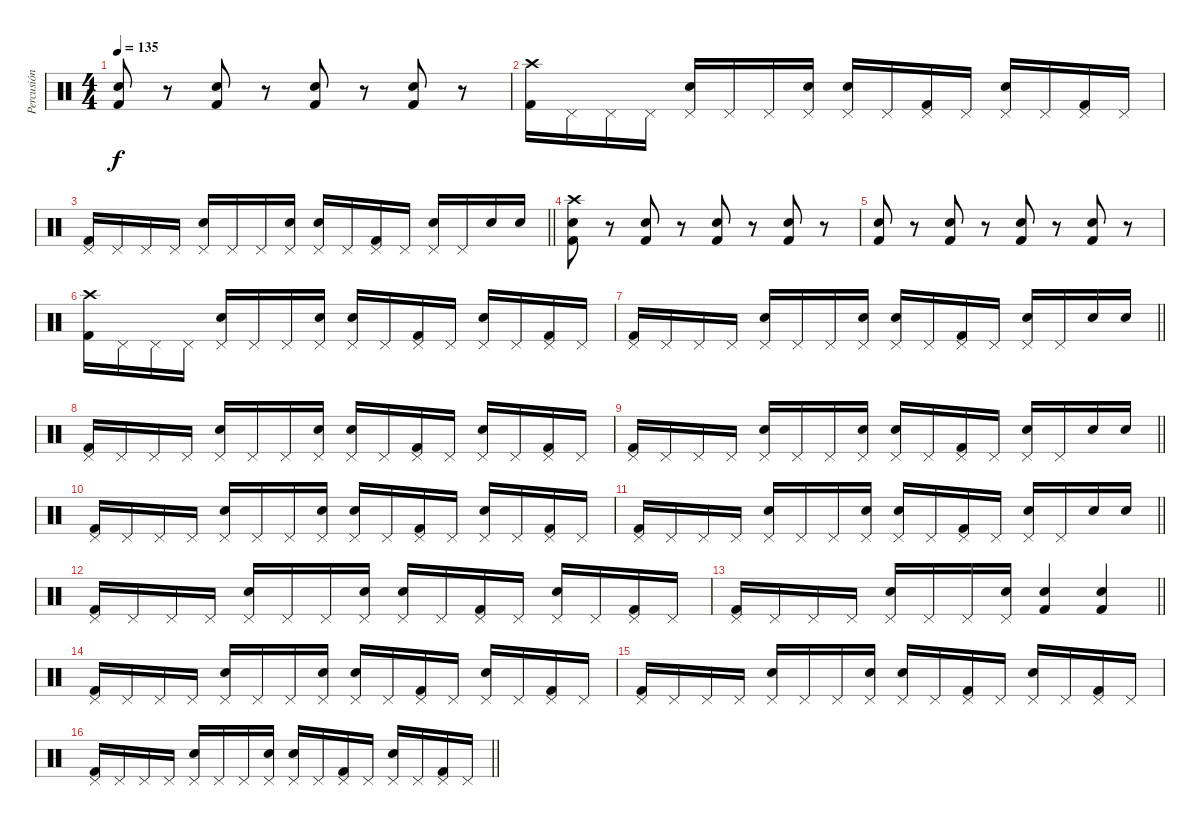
\track ("Percusión" "Percusión") {instrument percussion}
\staff {score}
\articulation defaults
\ts (4 4)
\tempo 135
\clef neutral
\ks c
("Snare (hit) 2" "Kick (hit) 2").8{dy f} r.8 ("Snare (hit) 2" "Kick (hit) 2").8 r.8 ("Snare (hit) 2" "Kick (hit) 2").8 r.8 ("Snare (hit) 2" "Kick (hit) 2").8 r.8 |
("Crash high (hit)" "Kick (hit) 2").16 "Pedal Hi-Hat (hit)".16 "Pedal Hi-Hat (hit)".16 "Pedal Hi-Hat (hit)".16 ("Pedal Hi-Hat (hit)" "Snare (hit) 2").16 "Pedal Hi-Hat (hit)".16 "Pedal Hi-Hat (hit)".16 ("Pedal Hi-Hat (hit)" "Snare (hit) 2").16 ("Pedal Hi-Hat (hit)" "Snare (hit) 2").16 "Pedal Hi-Hat (hit)".16 ("Pedal Hi-Hat (hit)" "Kick (hit) 2").16 "Pedal Hi-Hat (hit)".16 ("Pedal Hi-Hat (hit)" "Snare (hit) 2").16 "Pedal Hi-Hat (hit)".16 ("Pedal Hi-Hat (hit)" "Kick (hit) 2").16 "Pedal Hi-Hat (hit)".16 |
\barLineRight lightlight
("Pedal Hi-Hat (hit)" "Kick (hit) 2").16 "Pedal Hi-Hat (hit)".16 "Pedal Hi-Hat (hit)".16 "Pedal Hi-Hat (hit)".16 ("Pedal Hi-Hat (hit)" "Snare (hit) 2").16 "Pedal Hi-Hat (hit)".16 "Pedal Hi-Hat (hit)".16 ("Pedal Hi-Hat (hit)" "Snare (hit) 2").16 ("Pedal Hi-Hat (hit)" "Snare (hit) 2").16 "Pedal Hi-Hat (hit)".16 ("Pedal Hi-Hat (hit)" "Kick (hit) 2").16 "Pedal Hi-Hat (hit)".16 ("Pedal Hi-Hat (hit)" "Snare (hit) 2").16 "Pedal Hi-Hat (hit)".16 "Snare (hit) 2".16 "Snare (hit) 2".16 |
("Crash high (hit)" "Snare (hit) 2" "Kick (hit) 2").8 r.8 ("Snare (hit) 2" "Kick (hit) 2").8 r.8 ("Snare (hit) 2" "Kick (hit) 2").8 r.8 ("Snare (hit) 2" "Kick (hit) 2").8 r.8 |
("Snare (hit) 2" "Kick (hit) 2").8 r.8 ("Snare (hit) 2" "Kick (hit) 2").8 r.8 ("Snare (hit) 2" "Kick (hit) 2").8 r.8 ("Snare (hit) 2" "Kick (hit) 2").8 r.8 |
("Crash high (hit)" "Kick (hit) 2").16 "Pedal Hi-Hat (hit)".16 "Pedal Hi-Hat (hit)".16 "Pedal Hi-Hat (hit)".16 ("Pedal Hi-Hat (hit)" "Snare (hit) 2").16 "Pedal Hi-Hat (hit)".16 "Pedal Hi-Hat (hit)".16 ("Pedal Hi-Hat (hit)" "Snare (hit) 2").16 ("Pedal Hi-Hat (hit)" "Snare (hit) 2").16 "Pedal Hi-Hat (hit)".16 ("Pedal Hi-Hat (hit)" "Kick (hit) 2").16 "Pedal Hi-Hat (hit)".16 ("Pedal Hi-Hat (hit)" "Snare (hit) 2").16 "Pedal Hi-Hat (hit)".16 ("Pedal Hi-Hat (hit)" "Kick (hit) 2").16 "Pedal Hi-Hat (hit)".16 |
\barLineRight lightlight
("Pedal Hi-Hat (hit)" "Kick (hit) 2").16 "Pedal Hi-Hat (hit)".16 "Pedal Hi-Hat (hit)".16 "Pedal Hi-Hat (hit)".16 ("Pedal Hi-Hat (hit)" "Snare (hit) 2").16 "Pedal Hi-Hat (hit)".16 "Pedal Hi-Hat (hit)".16 ("Pedal Hi-Hat (hit)" "Snare (hit) 2").16 ("Pedal Hi-Hat (hit)" "Snare (hit) 2").16 "Pedal Hi-Hat (hit)".16 ("Pedal Hi-Hat (hit)" "Kick (hit) 2").16 "Pedal Hi-Hat (hit)".16 ("Pedal Hi-Hat (hit)" "Snare (hit) 2").16 "Pedal Hi-Hat (hit)".16 "Snare (hit) 2".16 "Snare (hit) 2".16 |
("Pedal Hi-Hat (hit)" "Kick (hit) 2").16 "Pedal Hi-Hat (hit)".16 "Pedal Hi-Hat (hit)".16 "Pedal Hi-Hat (hit)".16 ("Pedal Hi-Hat (hit)" "Snare (hit) 2").16 "Pedal Hi-Hat (hit)".16 "Pedal Hi-Hat (hit)".16 ("Pedal Hi-Hat (hit)" "Snare (hit) 2").16 ("Pedal Hi-Hat (hit)" "Snare (hit) 2").16 "Pedal Hi-Hat (hit)".16 ("Pedal Hi-Hat (hit)" "Kick (hit) 2").16 "Pedal Hi-Hat (hit)".16 ("Pedal Hi-Hat (hit)" "Snare (hit) 2").16 "Pedal Hi-Hat (hit)".16 ("Pedal Hi-Hat (hit)" "Kick (hit) 2").16 "Pedal Hi-Hat (hit)".16 |
\barLineRight lightlight
("Pedal Hi-Hat (hit)" "Kick (hit) 2").16 "Pedal Hi-Hat (hit)".16 "Pedal Hi-Hat (hit)".16 "Pedal Hi-Hat (hit)".16 ("Pedal Hi-Hat (hit)" "Snare (hit) 2").16 "Pedal Hi-Hat (hit)".16 "Pedal Hi-Hat (hit)".16 ("Pedal Hi-Hat (hit)" "Snare (hit) 2").16 ("Pedal Hi-Hat (hit)" "Snare (hit) 2").16 "Pedal Hi-Hat (hit)".16 ("Pedal Hi-Hat (hit)" "Kick (hit) 2").16 "Pedal Hi-Hat (hit)".16 ("Pedal Hi-Hat (hit)" "Snare (hit) 2").16 "Pedal Hi-Hat (hit)".16 "Snare (hit) 2".16 "Snare (hit) 2".16 |
("Pedal Hi-Hat (hit)" "Kick (hit) 2").16 "Pedal Hi-Hat (hit)".16 "Pedal Hi-Hat (hit)".16 "Pedal Hi-Hat (hit)".16 ("Pedal Hi-Hat (hit)" "Snare (hit) 2").16 "Pedal Hi-Hat (hit)".16 "Pedal Hi-Hat (hit)".16 ("Pedal Hi-Hat (hit)" "Snare (hit) 2").16 ("Pedal Hi-Hat (hit)" "Snare (hit) 2").16 "Pedal Hi-Hat (hit)".16 ("Pedal Hi-Hat (hit)" "Kick (hit) 2").16 "Pedal Hi-Hat (hit)".16 ("Pedal Hi-Hat (hit)" "Snare (hit) 2").16 "Pedal Hi-Hat (hit)".16 ("Pedal Hi-Hat (hit)" "Kick (hit) 2").16 "Pedal Hi-Hat (hit)".16 |
\barLineRight lightlight
("Pedal Hi-Hat (hit)" "Kick (hit) 2").16 "Pedal Hi-Hat (hit)".16 "Pedal Hi-Hat (hit)".16 "Pedal Hi-Hat (hit)".16 ("Pedal Hi-Hat (hit)" "Snare (hit) 2").16 "Pedal Hi-Hat (hit)".16 "Pedal Hi-Hat (hit)".16 ("Pedal Hi-Hat (hit)" "Snare (hit) 2").16 ("Pedal Hi-Hat (hit)" "Snare (hit) 2").16 "Pedal Hi-Hat (hit)".16 ("Pedal Hi-Hat (hit)" "Kick (hit) 2").16 "Pedal Hi-Hat (hit)".16 ("Pedal Hi-Hat (hit)" "Snare (hit) 2").16 "Pedal Hi-Hat (hit)".16 "Snare (hit) 2".16 "Snare (hit) 2".16 |
("Pedal Hi-Hat (hit)" "Kick (hit) 2").16 "Pedal Hi-Hat (hit)".16 "Pedal Hi-Hat (hit)".16 "Pedal Hi-Hat (hit)".16 ("Pedal Hi-Hat (hit)" "Snare (hit) 2").16 "Pedal Hi-Hat (hit)".16 "Pedal Hi-Hat (hit)".16 ("Pedal Hi-Hat (hit)" "Snare (hit) 2").16 ("Pedal Hi-Hat (hit)" "Snare (hit) 2").16 "Pedal Hi-Hat (hit)".16 ("Pedal Hi-Hat (hit)" "Kick (hit) 2").16 "Pedal Hi-Hat (hit)".16 ("Pedal Hi-Hat (hit)" "Snare (hit) 2").16 "Pedal Hi-Hat (hit)".16 ("Pedal Hi-Hat (hit)" "Kick (hit) 2").16 "Pedal Hi-Hat (hit)".16 |
\barLineRight lightlight
("Pedal Hi-Hat (hit)" "Kick (hit) 2").16 "Pedal Hi-Hat (hit)".16 "Pedal Hi-Hat (hit)".16 "Pedal Hi-Hat (hit)".16 ("Pedal Hi-Hat (hit)" "Snare (hit) 2").16 "Pedal Hi-Hat (hit)".16 "Pedal Hi-Hat (hit)".16 ("Pedal Hi-Hat (hit)" "Snare (hit) 2").16 ("Snare (hit) 2" "Kick (hit) 2").4 ("Snare (hit) 2" "Kick (hit) 2").4 |
("Pedal Hi-Hat (hit)" "Kick (hit) 2").16 "Pedal Hi-Hat (hit)".16 "Pedal Hi-Hat (hit)".16 "Pedal Hi-Hat (hit)".16 ("Pedal Hi-Hat (hit)" "Snare (hit) 2").16 "Pedal Hi-Hat (hit)".16 "Pedal Hi-Hat (hit)".16 ("Pedal Hi-Hat (hit)" "Snare (hit) 2").16 ("Pedal Hi-Hat (hit)" "Snare (hit) 2").16 "Pedal Hi-Hat (hit)".16 ("Pedal Hi-Hat (hit)" "Kick (hit) 2").16 "Pedal Hi-Hat (hit)".16 ("Pedal Hi-Hat (hit)" "Snare (hit) 2").16 "Pedal Hi-Hat (hit)".16 ("Pedal Hi-Hat (hit)" "Kick (hit) 2").16 "Pedal Hi-Hat (hit)".16 |
("Pedal Hi-Hat (hit)" "Kick (hit) 2").16 "Pedal Hi-Hat (hit)".16 "Pedal Hi-Hat (hit)".16 "Pedal Hi-Hat (hit)".16 ("Pedal Hi-Hat (hit)" "Snare (hit) 2").16 "Pedal Hi-Hat (hit)".16 "Pedal Hi-Hat (hit)".16 ("Pedal Hi-Hat (hit)" "Snare (hit) 2").16 ("Pedal Hi-Hat (hit)" "Snare (hit) 2").16 "Pedal Hi-Hat (hit)".16 ("Pedal Hi-Hat (hit)" "Kick (hit) 2").16 "Pedal Hi-Hat (hit)".16 ("Pedal Hi-Hat (hit)" "Snare (hit) 2").16 "Pedal Hi-Hat (hit)".16 ("Pedal Hi-Hat (hit)" "Kick (hit) 2").16 "Pedal Hi-Hat (hit)".16 |
\barLineRight lightlight
("Pedal Hi-Hat (hit)" "Kick (hit) 2").16 "Pedal Hi-Hat (hit)".16 "Pedal Hi-Hat (hit)".16 "Pedal Hi-Hat (hit)".16 ("Pedal Hi-Hat (hit)" "Snare (hit) 2").16 "Pedal Hi-Hat (hit)".16 "Pedal Hi-Hat (hit)".16 ("Pedal Hi-Hat (hit)" "Snare (hit) 2").16 ("Pedal Hi-Hat (hit)" "Snare (hit) 2").16 "Pedal Hi-Hat (hit)".16 ("Pedal Hi-Hat (hit)" "Kick (hit) 2").16 "Pedal Hi-Hat (hit)".16 ("Pedal Hi-Hat (hit)" "Snare (hit) 2").16 "Pedal Hi-Hat (hit)".16 ("Pedal Hi-Hat (hit)" "Kick (hit) 2").16 "Pedal Hi-Hat (hit)".16
